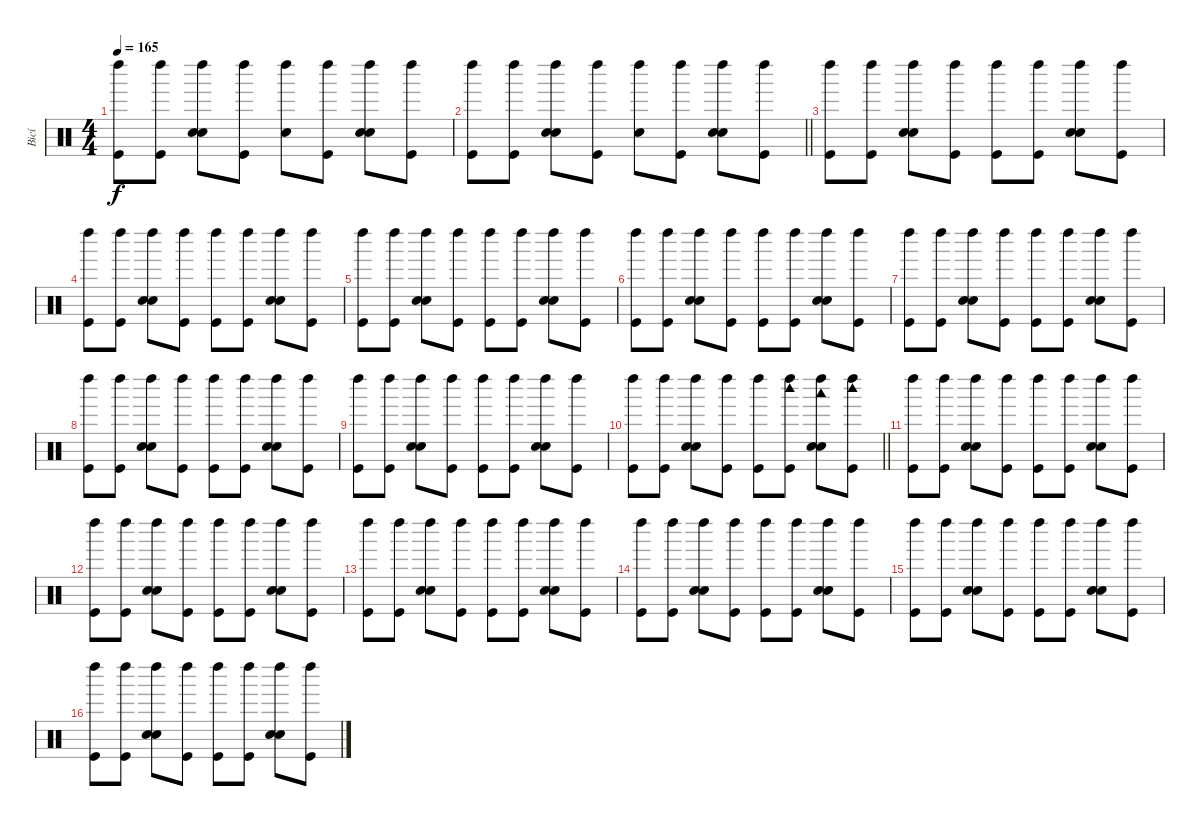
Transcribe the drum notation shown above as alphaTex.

\track ("Bicí" "Bicí") {instrument percussion}
\staff {score}
\articulation defaults
\ts (4 4)
\tempo 165
\clef neutral
\ks c
("Left Maraca (hit)" "Kick (hit)").8{dy f} ("Left Maraca (hit)" "Kick (hit)").8 ("Left Maraca (hit)" "Hand Clap (hit)" "Electric Snare (hit)").8 ("Left Maraca (hit)" "Kick (hit)").8 ("Left Maraca (hit)" "Snare (hit)").8 ("Left Maraca (hit)" "Kick (hit)").8 ("Left Maraca (hit)" "Hand Clap (hit)" "Electric Snare (hit)").8 ("Left Maraca (hit)" "Kick (hit)").8 |
\barLineRight lightlight
("Left Maraca (hit)" "Kick (hit)").8 ("Left Maraca (hit)" "Kick (hit)").8 ("Left Maraca (hit)" "Hand Clap (hit)" "Electric Snare (hit)").8 ("Left Maraca (hit)" "Kick (hit)").8 ("Left Maraca (hit)" "Snare (hit)").8 ("Left Maraca (hit)" "Kick (hit)").8 ("Left Maraca (hit)" "Hand Clap (hit)" "Electric Snare (hit)").8 ("Left Maraca (hit)" "Kick (hit)").8 |
\section ("" "")
("Left Maraca (hit)" "Kick (hit)").8 ("Left Maraca (hit)" "Kick (hit)").8 ("Left Maraca (hit)" "Hand Clap (hit)" "Electric Snare (hit)").8 ("Left Maraca (hit)" "Kick (hit)").8 ("Left Maraca (hit)" "Kick (hit)").8 ("Left Maraca (hit)" "Kick (hit)").8 ("Left Maraca (hit)" "Hand Clap (hit)" "Electric Snare (hit)").8 ("Left Maraca (hit)" "Kick (hit)").8 |
("Left Maraca (hit)" "Kick (hit)").8 ("Left Maraca (hit)" "Kick (hit)").8 ("Left Maraca (hit)" "Hand Clap (hit)" "Electric Snare (hit)").8 ("Left Maraca (hit)" "Kick (hit)").8 ("Left Maraca (hit)" "Kick (hit)").8 ("Left Maraca (hit)" "Kick (hit)").8 ("Left Maraca (hit)" "Hand Clap (hit)" "Electric Snare (hit)").8 ("Left Maraca (hit)" "Kick (hit)").8 |
("Left Maraca (hit)" "Kick (hit)").8 ("Left Maraca (hit)" "Kick (hit)").8 ("Left Maraca (hit)" "Hand Clap (hit)" "Electric Snare (hit)").8 ("Left Maraca (hit)" "Kick (hit)").8 ("Left Maraca (hit)" "Kick (hit)").8 ("Left Maraca (hit)" "Kick (hit)").8 ("Left Maraca (hit)" "Hand Clap (hit)" "Electric Snare (hit)").8 ("Left Maraca (hit)" "Kick (hit)").8 |
("Left Maraca (hit)" "Kick (hit)").8 ("Left Maraca (hit)" "Kick (hit)").8 ("Left Maraca (hit)" "Hand Clap (hit)" "Electric Snare (hit)").8 ("Left Maraca (hit)" "Kick (hit)").8 ("Left Maraca (hit)" "Kick (hit)").8 ("Left Maraca (hit)" "Kick (hit)").8 ("Left Maraca (hit)" "Hand Clap (hit)" "Electric Snare (hit)").8 ("Left Maraca (hit)" "Kick (hit)").8 |
("Left Maraca (hit)" "Kick (hit)").8 ("Left Maraca (hit)" "Kick (hit)").8 ("Left Maraca (hit)" "Hand Clap (hit)" "Electric Snare (hit)").8 ("Left Maraca (hit)" "Kick (hit)").8 ("Left Maraca (hit)" "Kick (hit)").8 ("Left Maraca (hit)" "Kick (hit)").8 ("Left Maraca (hit)" "Hand Clap (hit)" "Electric Snare (hit)").8 ("Left Maraca (hit)" "Kick (hit)").8 |
("Left Maraca (hit)" "Kick (hit)").8 ("Left Maraca (hit)" "Kick (hit)").8 ("Left Maraca (hit)" "Hand Clap (hit)" "Electric Snare (hit)").8 ("Left Maraca (hit)" "Kick (hit)").8 ("Left Maraca (hit)" "Kick (hit)").8 ("Left Maraca (hit)" "Kick (hit)").8 ("Left Maraca (hit)" "Hand Clap (hit)" "Electric Snare (hit)").8 ("Left Maraca (hit)" "Kick (hit)").8 |
("Left Maraca (hit)" "Kick (hit)").8 ("Left Maraca (hit)" "Kick (hit)").8 ("Left Maraca (hit)" "Hand Clap (hit)" "Electric Snare (hit)").8 ("Left Maraca (hit)" "Kick (hit)").8 ("Left Maraca (hit)" "Kick (hit)").8 ("Left Maraca (hit)" "Kick (hit)").8 ("Left Maraca (hit)" "Hand Clap (hit)" "Electric Snare (hit)").8 ("Left Maraca (hit)" "Kick (hit)").8 |
\barLineRight lightlight
("Left Maraca (hit)" "Kick (hit)").8 ("Left Maraca (hit)" "Kick (hit)").8 ("Left Maraca (hit)" "Hand Clap (hit)" "Electric Snare (hit)").8 ("Left Maraca (hit)" "Kick (hit)").8 ("Left Maraca (hit)" "Kick (hit)").8 ("Woodblock high (hit)" "Left Maraca (hit)" "Kick (hit)").8 ("Woodblock low (hit)" "Left Maraca (hit)" "Hand Clap (hit)" "Electric Snare (hit)").8 ("Woodblock high (hit)" "Left Maraca (hit)" "Kick (hit)").8 |
\section ("" "")
("Left Maraca (hit)" "Kick (hit)").8 ("Left Maraca (hit)" "Kick (hit)").8 ("Left Maraca (hit)" "Hand Clap (hit)" "Electric Snare (hit)").8 ("Left Maraca (hit)" "Kick (hit)").8 ("Left Maraca (hit)" "Kick (hit)").8 ("Left Maraca (hit)" "Kick (hit)").8 ("Left Maraca (hit)" "Hand Clap (hit)" "Electric Snare (hit)").8 ("Left Maraca (hit)" "Kick (hit)").8 |
("Left Maraca (hit)" "Kick (hit)").8 ("Left Maraca (hit)" "Kick (hit)").8 ("Left Maraca (hit)" "Hand Clap (hit)" "Electric Snare (hit)").8 ("Left Maraca (hit)" "Kick (hit)").8 ("Left Maraca (hit)" "Kick (hit)").8 ("Left Maraca (hit)" "Kick (hit)").8 ("Left Maraca (hit)" "Hand Clap (hit)" "Electric Snare (hit)").8 ("Left Maraca (hit)" "Kick (hit)").8 |
("Left Maraca (hit)" "Kick (hit)").8 ("Left Maraca (hit)" "Kick (hit)").8 ("Left Maraca (hit)" "Hand Clap (hit)" "Electric Snare (hit)").8 ("Left Maraca (hit)" "Kick (hit)").8 ("Left Maraca (hit)" "Kick (hit)").8 ("Left Maraca (hit)" "Kick (hit)").8 ("Left Maraca (hit)" "Hand Clap (hit)" "Electric Snare (hit)").8 ("Left Maraca (hit)" "Kick (hit)").8 |
("Left Maraca (hit)" "Kick (hit)").8 ("Left Maraca (hit)" "Kick (hit)").8 ("Left Maraca (hit)" "Hand Clap (hit)" "Electric Snare (hit)").8 ("Left Maraca (hit)" "Kick (hit)").8 ("Left Maraca (hit)" "Kick (hit)").8 ("Left Maraca (hit)" "Kick (hit)").8 ("Left Maraca (hit)" "Hand Clap (hit)" "Electric Snare (hit)").8 ("Left Maraca (hit)" "Kick (hit)").8 |
("Left Maraca (hit)" "Kick (hit)").8 ("Left Maraca (hit)" "Kick (hit)").8 ("Left Maraca (hit)" "Hand Clap (hit)" "Electric Snare (hit)").8 ("Left Maraca (hit)" "Kick (hit)").8 ("Left Maraca (hit)" "Kick (hit)").8 ("Left Maraca (hit)" "Kick (hit)").8 ("Left Maraca (hit)" "Hand Clap (hit)" "Electric Snare (hit)").8 ("Left Maraca (hit)" "Kick (hit)").8 |
("Left Maraca (hit)" "Kick (hit)").8 ("Left Maraca (hit)" "Kick (hit)").8 ("Left Maraca (hit)" "Hand Clap (hit)" "Electric Snare (hit)").8 ("Left Maraca (hit)" "Kick (hit)").8 ("Left Maraca (hit)" "Kick (hit)").8 ("Left Maraca (hit)" "Kick (hit)").8 ("Left Maraca (hit)" "Hand Clap (hit)" "Electric Snare (hit)").8 ("Left Maraca (hit)" "Kick (hit)").8
